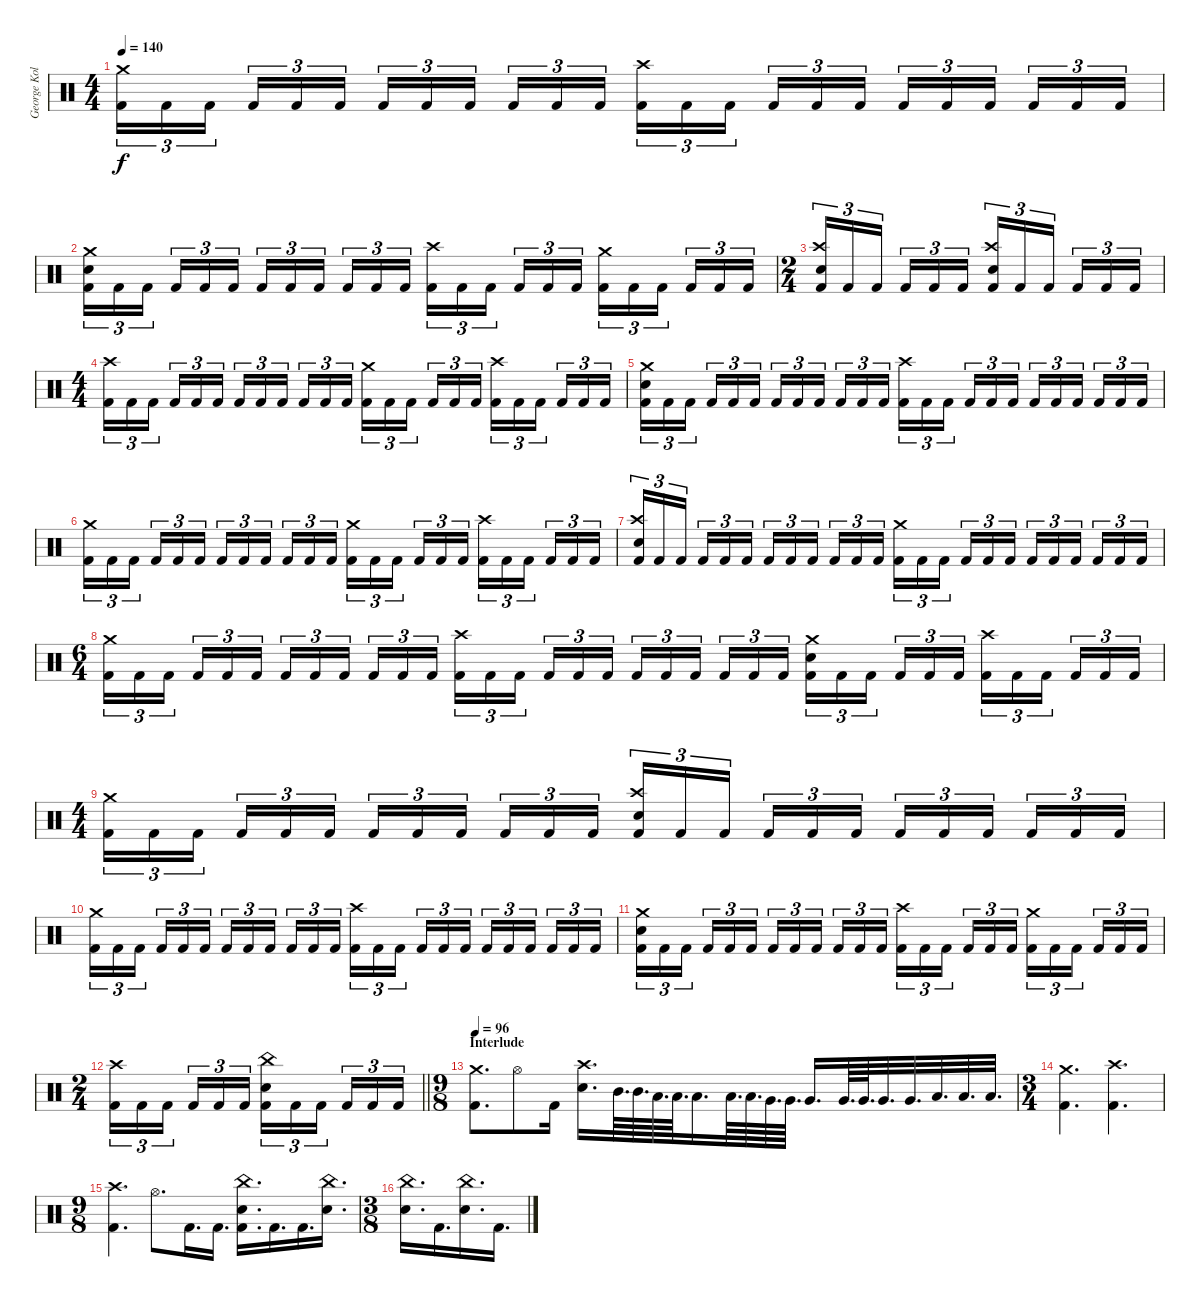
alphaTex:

\track ("George Kollias" "George Kol") {instrument percussion}
\staff {score}
\articulation defaults
\ts (4 4)
\tempo 140
\clef neutral
\ks c
("Crash medium (hit)" "Kick (hit) 2").16{tu (3 2) dy f} "Kick (hit) 2".16{tu (3 2)} "Kick (hit) 2".16{tu (3 2) beam splitsecondary} "Kick (hit) 2".16{tu (3 2)} "Kick (hit) 2".16{tu (3 2)} "Kick (hit) 2".16{tu (3 2)} "Kick (hit) 2".16{tu (3 2)} "Kick (hit) 2".16{tu (3 2)} "Kick (hit) 2".16{tu (3 2) beam splitsecondary} "Kick (hit) 2".16{tu (3 2)} "Kick (hit) 2".16{tu (3 2)} "Kick (hit) 2".16{tu (3 2)} ("Crash high (hit)" "Kick (hit) 2").16{tu (3 2)} "Kick (hit) 2".16{tu (3 2)} "Kick (hit) 2".16{tu (3 2) beam splitsecondary} "Kick (hit) 2".16{tu (3 2)} "Kick (hit) 2".16{tu (3 2)} "Kick (hit) 2".16{tu (3 2)} "Kick (hit) 2".16{tu (3 2)} "Kick (hit) 2".16{tu (3 2)} "Kick (hit) 2".16{tu (3 2) beam splitsecondary} "Kick (hit) 2".16{tu (3 2)} "Kick (hit) 2".16{tu (3 2)} "Kick (hit) 2".16{tu (3 2)} |
("Crash medium (hit)" "Electric Snare (hit)" "Kick (hit) 2").16{tu (3 2)} "Kick (hit) 2".16{tu (3 2)} "Kick (hit) 2".16{tu (3 2) beam splitsecondary} "Kick (hit) 2".16{tu (3 2)} "Kick (hit) 2".16{tu (3 2)} "Kick (hit) 2".16{tu (3 2)} "Kick (hit) 2".16{tu (3 2)} "Kick (hit) 2".16{tu (3 2)} "Kick (hit) 2".16{tu (3 2) beam splitsecondary} "Kick (hit) 2".16{tu (3 2)} "Kick (hit) 2".16{tu (3 2)} "Kick (hit) 2".16{tu (3 2)} ("Crash high (hit)" "Kick (hit) 2").16{tu (3 2)} "Kick (hit) 2".16{tu (3 2)} "Kick (hit) 2".16{tu (3 2) beam splitsecondary} "Kick (hit) 2".16{tu (3 2)} "Kick (hit) 2".16{tu (3 2)} "Kick (hit) 2".16{tu (3 2)} ("Crash medium (hit)" "Kick (hit) 2").16{tu (3 2)} "Kick (hit) 2".16{tu (3 2)} "Kick (hit) 2".16{tu (3 2) beam splitsecondary} "Kick (hit) 2".16{tu (3 2)} "Kick (hit) 2".16{tu (3 2)} "Kick (hit) 2".16{tu (3 2)} |
\ts (2 4)
("Crash high (hit)" "Electric Snare (hit)" "Kick (hit) 2").16{tu (3 2)} "Kick (hit) 2".16{tu (3 2)} "Kick (hit) 2".16{tu (3 2) beam splitsecondary} "Kick (hit) 2".16{tu (3 2)} "Kick (hit) 2".16{tu (3 2)} "Kick (hit) 2".16{tu (3 2)} ("Crash high (hit)" "Electric Snare (hit)" "Kick (hit) 2").16{tu (3 2)} "Kick (hit) 2".16{tu (3 2)} "Kick (hit) 2".16{tu (3 2) beam splitsecondary} "Kick (hit) 2".16{tu (3 2)} "Kick (hit) 2".16{tu (3 2)} "Kick (hit) 2".16{tu (3 2)} |
\ts (4 4)
("Crash high (hit)" "Kick (hit) 2").16{tu (3 2)} "Kick (hit) 2".16{tu (3 2)} "Kick (hit) 2".16{tu (3 2) beam splitsecondary} "Kick (hit) 2".16{tu (3 2)} "Kick (hit) 2".16{tu (3 2)} "Kick (hit) 2".16{tu (3 2)} "Kick (hit) 2".16{tu (3 2)} "Kick (hit) 2".16{tu (3 2)} "Kick (hit) 2".16{tu (3 2) beam splitsecondary} "Kick (hit) 2".16{tu (3 2)} "Kick (hit) 2".16{tu (3 2)} "Kick (hit) 2".16{tu (3 2)} ("Crash medium (hit)" "Kick (hit) 2").16{tu (3 2)} "Kick (hit) 2".16{tu (3 2)} "Kick (hit) 2".16{tu (3 2) beam splitsecondary} "Kick (hit) 2".16{tu (3 2)} "Kick (hit) 2".16{tu (3 2)} "Kick (hit) 2".16{tu (3 2)} ("Crash high (hit)" "Kick (hit) 2").16{tu (3 2)} "Kick (hit) 2".16{tu (3 2)} "Kick (hit) 2".16{tu (3 2) beam splitsecondary} "Kick (hit) 2".16{tu (3 2)} "Kick (hit) 2".16{tu (3 2)} "Kick (hit) 2".16{tu (3 2)} |
("Crash medium (hit)" "Electric Snare (hit)" "Kick (hit) 2").16{tu (3 2)} "Kick (hit) 2".16{tu (3 2)} "Kick (hit) 2".16{tu (3 2) beam splitsecondary} "Kick (hit) 2".16{tu (3 2)} "Kick (hit) 2".16{tu (3 2)} "Kick (hit) 2".16{tu (3 2)} "Kick (hit) 2".16{tu (3 2)} "Kick (hit) 2".16{tu (3 2)} "Kick (hit) 2".16{tu (3 2) beam splitsecondary} "Kick (hit) 2".16{tu (3 2)} "Kick (hit) 2".16{tu (3 2)} "Kick (hit) 2".16{tu (3 2)} ("Crash high (hit)" "Kick (hit) 2").16{tu (3 2)} "Kick (hit) 2".16{tu (3 2)} "Kick (hit) 2".16{tu (3 2) beam splitsecondary} "Kick (hit) 2".16{tu (3 2)} "Kick (hit) 2".16{tu (3 2)} "Kick (hit) 2".16{tu (3 2)} "Kick (hit) 2".16{tu (3 2)} "Kick (hit) 2".16{tu (3 2)} "Kick (hit) 2".16{tu (3 2) beam splitsecondary} "Kick (hit) 2".16{tu (3 2)} "Kick (hit) 2".16{tu (3 2)} "Kick (hit) 2".16{tu (3 2)} |
("Crash medium (hit)" "Kick (hit) 2").16{tu (3 2)} "Kick (hit) 2".16{tu (3 2)} "Kick (hit) 2".16{tu (3 2) beam splitsecondary} "Kick (hit) 2".16{tu (3 2)} "Kick (hit) 2".16{tu (3 2)} "Kick (hit) 2".16{tu (3 2)} "Kick (hit) 2".16{tu (3 2)} "Kick (hit) 2".16{tu (3 2)} "Kick (hit) 2".16{tu (3 2) beam splitsecondary} "Kick (hit) 2".16{tu (3 2)} "Kick (hit) 2".16{tu (3 2)} "Kick (hit) 2".16{tu (3 2)} ("Crash medium (hit)" "Kick (hit) 2").16{tu (3 2)} "Kick (hit) 2".16{tu (3 2)} "Kick (hit) 2".16{tu (3 2) beam splitsecondary} "Kick (hit) 2".16{tu (3 2)} "Kick (hit) 2".16{tu (3 2)} "Kick (hit) 2".16{tu (3 2)} ("Crash high (hit)" "Kick (hit) 2").16{tu (3 2)} "Kick (hit) 2".16{tu (3 2)} "Kick (hit) 2".16{tu (3 2) beam splitsecondary} "Kick (hit) 2".16{tu (3 2)} "Kick (hit) 2".16{tu (3 2)} "Kick (hit) 2".16{tu (3 2)} |
("Crash high (hit)" "Electric Snare (hit)" "Kick (hit) 2").16{tu (3 2)} "Kick (hit) 2".16{tu (3 2)} "Kick (hit) 2".16{tu (3 2) beam splitsecondary} "Kick (hit) 2".16{tu (3 2)} "Kick (hit) 2".16{tu (3 2)} "Kick (hit) 2".16{tu (3 2)} "Kick (hit) 2".16{tu (3 2)} "Kick (hit) 2".16{tu (3 2)} "Kick (hit) 2".16{tu (3 2) beam splitsecondary} "Kick (hit) 2".16{tu (3 2)} "Kick (hit) 2".16{tu (3 2)} "Kick (hit) 2".16{tu (3 2)} ("Crash medium (hit)" "Kick (hit) 2").16{tu (3 2)} "Kick (hit) 2".16{tu (3 2)} "Kick (hit) 2".16{tu (3 2) beam splitsecondary} "Kick (hit) 2".16{tu (3 2)} "Kick (hit) 2".16{tu (3 2)} "Kick (hit) 2".16{tu (3 2)} "Kick (hit) 2".16{tu (3 2)} "Kick (hit) 2".16{tu (3 2)} "Kick (hit) 2".16{tu (3 2) beam splitsecondary} "Kick (hit) 2".16{tu (3 2)} "Kick (hit) 2".16{tu (3 2)} "Kick (hit) 2".16{tu (3 2)} |
\ts (6 4)
("Crash medium (hit)" "Kick (hit) 2").16{tu (3 2)} "Kick (hit) 2".16{tu (3 2)} "Kick (hit) 2".16{tu (3 2) beam splitsecondary} "Kick (hit) 2".16{tu (3 2)} "Kick (hit) 2".16{tu (3 2)} "Kick (hit) 2".16{tu (3 2) beam splitsecondary} "Kick (hit) 2".16{tu (3 2)} "Kick (hit) 2".16{tu (3 2)} "Kick (hit) 2".16{tu (3 2) beam splitsecondary} "Kick (hit) 2".16{tu (3 2)} "Kick (hit) 2".16{tu (3 2)} "Kick (hit) 2".16{tu (3 2) beam splitsecondary} ("Crash high (hit)" "Kick (hit) 2").16{tu (3 2)} "Kick (hit) 2".16{tu (3 2)} "Kick (hit) 2".16{tu (3 2) beam splitsecondary} "Kick (hit) 2".16{tu (3 2)} "Kick (hit) 2".16{tu (3 2)} "Kick (hit) 2".16{tu (3 2)} "Kick (hit) 2".16{tu (3 2)} "Kick (hit) 2".16{tu (3 2)} "Kick (hit) 2".16{tu (3 2) beam splitsecondary} "Kick (hit) 2".16{tu (3 2)} "Kick (hit) 2".16{tu (3 2)} "Kick (hit) 2".16{tu (3 2) beam splitsecondary} ("Crash medium (hit)" "Electric Snare (hit)" "Kick (hit) 2").16{tu (3 2)} "Kick (hit) 2".16{tu (3 2)} "Kick (hit) 2".16{tu (3 2) beam splitsecondary} "Kick (hit) 2".16{tu (3 2)} "Kick (hit) 2".16{tu (3 2)} "Kick (hit) 2".16{tu (3 2) beam splitsecondary} ("Crash high (hit)" "Kick (hit) 2").16{tu (3 2)} "Kick (hit) 2".16{tu (3 2)} "Kick (hit) 2".16{tu (3 2) beam splitsecondary} "Kick (hit) 2".16{tu (3 2)} "Kick (hit) 2".16{tu (3 2)} "Kick (hit) 2".16{tu (3 2)} |
\ts (4 4)
("Crash medium (hit)" "Kick (hit) 2").16{tu (3 2)} "Kick (hit) 2".16{tu (3 2)} "Kick (hit) 2".16{tu (3 2) beam splitsecondary} "Kick (hit) 2".16{tu (3 2)} "Kick (hit) 2".16{tu (3 2)} "Kick (hit) 2".16{tu (3 2)} "Kick (hit) 2".16{tu (3 2)} "Kick (hit) 2".16{tu (3 2)} "Kick (hit) 2".16{tu (3 2) beam splitsecondary} "Kick (hit) 2".16{tu (3 2)} "Kick (hit) 2".16{tu (3 2)} "Kick (hit) 2".16{tu (3 2)} ("Crash high (hit)" "Electric Snare (hit)" "Kick (hit) 2").16{tu (3 2)} "Kick (hit) 2".16{tu (3 2)} "Kick (hit) 2".16{tu (3 2) beam splitsecondary} "Kick (hit) 2".16{tu (3 2)} "Kick (hit) 2".16{tu (3 2)} "Kick (hit) 2".16{tu (3 2)} "Kick (hit) 2".16{tu (3 2)} "Kick (hit) 2".16{tu (3 2)} "Kick (hit) 2".16{tu (3 2) beam splitsecondary} "Kick (hit) 2".16{tu (3 2)} "Kick (hit) 2".16{tu (3 2)} "Kick (hit) 2".16{tu (3 2)} |
("Crash medium (hit)" "Kick (hit) 2").16{tu (3 2)} "Kick (hit) 2".16{tu (3 2)} "Kick (hit) 2".16{tu (3 2) beam splitsecondary} "Kick (hit) 2".16{tu (3 2)} "Kick (hit) 2".16{tu (3 2)} "Kick (hit) 2".16{tu (3 2)} "Kick (hit) 2".16{tu (3 2)} "Kick (hit) 2".16{tu (3 2)} "Kick (hit) 2".16{tu (3 2) beam splitsecondary} "Kick (hit) 2".16{tu (3 2)} "Kick (hit) 2".16{tu (3 2)} "Kick (hit) 2".16{tu (3 2)} ("Crash high (hit)" "Kick (hit) 2").16{tu (3 2)} "Kick (hit) 2".16{tu (3 2)} "Kick (hit) 2".16{tu (3 2) beam splitsecondary} "Kick (hit) 2".16{tu (3 2)} "Kick (hit) 2".16{tu (3 2)} "Kick (hit) 2".16{tu (3 2)} "Kick (hit) 2".16{tu (3 2)} "Kick (hit) 2".16{tu (3 2)} "Kick (hit) 2".16{tu (3 2) beam splitsecondary} "Kick (hit) 2".16{tu (3 2)} "Kick (hit) 2".16{tu (3 2)} "Kick (hit) 2".16{tu (3 2)} |
("Crash medium (hit)" "Electric Snare (hit)" "Kick (hit) 2").16{tu (3 2)} "Kick (hit) 2".16{tu (3 2)} "Kick (hit) 2".16{tu (3 2) beam splitsecondary} "Kick (hit) 2".16{tu (3 2)} "Kick (hit) 2".16{tu (3 2)} "Kick (hit) 2".16{tu (3 2)} "Kick (hit) 2".16{tu (3 2)} "Kick (hit) 2".16{tu (3 2)} "Kick (hit) 2".16{tu (3 2) beam splitsecondary} "Kick (hit) 2".16{tu (3 2)} "Kick (hit) 2".16{tu (3 2)} "Kick (hit) 2".16{tu (3 2)} ("Crash high (hit)" "Kick (hit) 2").16{tu (3 2)} "Kick (hit) 2".16{tu (3 2)} "Kick (hit) 2".16{tu (3 2) beam splitsecondary} "Kick (hit) 2".16{tu (3 2)} "Kick (hit) 2".16{tu (3 2)} "Kick (hit) 2".16{tu (3 2)} ("Crash medium (hit)" "Kick (hit) 2").16{tu (3 2)} "Kick (hit) 2".16{tu (3 2)} "Kick (hit) 2".16{tu (3 2) beam splitsecondary} "Kick (hit) 2".16{tu (3 2)} "Kick (hit) 2".16{tu (3 2)} "Kick (hit) 2".16{tu (3 2)} |
\ts (2 4)
\barLineRight lightlight
("Crash high (hit)" "Kick (hit) 2").16{tu (3 2)} "Kick (hit) 2".16{tu (3 2)} "Kick (hit) 2".16{tu (3 2) beam splitsecondary} "Kick (hit) 2".16{tu (3 2)} "Kick (hit) 2".16{tu (3 2)} "Kick (hit) 2".16{tu (3 2)} ("China (hit)" "Electric Snare (hit)" "Kick (hit) 2").16{tu (3 2)} "Kick (hit) 2".16{tu (3 2)} "Kick (hit) 2".16{tu (3 2) beam splitsecondary} "Kick (hit) 2".16{tu (3 2)} "Kick (hit) 2".16{tu (3 2)} "Kick (hit) 2".16{tu (3 2)} |
\ts (9 8)
\section ("" "Interlude")
\tempo 96
("Crash medium (hit)" "Kick (hit) 2").8{d} "Hi-Hat (open)".8 "Kick (hit) 2".16 ("Crash high (hit)" "Electric Snare (hit)").16{d} "Mid Tom (hit)".64{d} "Mid Tom (hit)".64{d} "Low Tom (hit)".64{d} "Low Tom (hit)".64{d} "Low Tom (hit)".16{d} "Low Tom (hit)".64{d} "Low Tom (hit)".64{d} "Very Low Tom (hit)".64{d} "Very Low Tom (hit)".64{d} "Very Low Tom (hit)".16{d} "Very Low Tom (hit)".64{d} "Very Low Tom (hit)".64{d} "Very Low Tom (hit)".32{d} "Very Low Tom (hit)".32{d} "Low Floor Tom (hit)".32{d} "Low Floor Tom (hit)".32{d} "Low Floor Tom (hit)".32{d} |
\ts (3 4)
("Crash medium (hit)" "Kick (hit) 2").4{d} ("Crash high (hit)" "Kick (hit) 2").4{d} |
\ts (9 8)
("Crash high (hit)" "Kick (hit) 2").4{d} "Hi-Hat (open)".8{d} "Kick (hit) 2".16{d} "Kick (hit) 2".16{d} ("China (hit)" "Electric Snare (hit)" "Kick (hit) 2").16{d} "Kick (hit) 2".16{d} "Kick (hit) 2".16{d} ("China (hit)" "Electric Snare (hit)").16{d} |
\ts (3 8)
("China (hit)" "Electric Snare (hit)").16{d} "Kick (hit) 2".16{d} ("China (hit)" "Electric Snare (hit)").16{d} "Kick (hit) 2".16{d}
